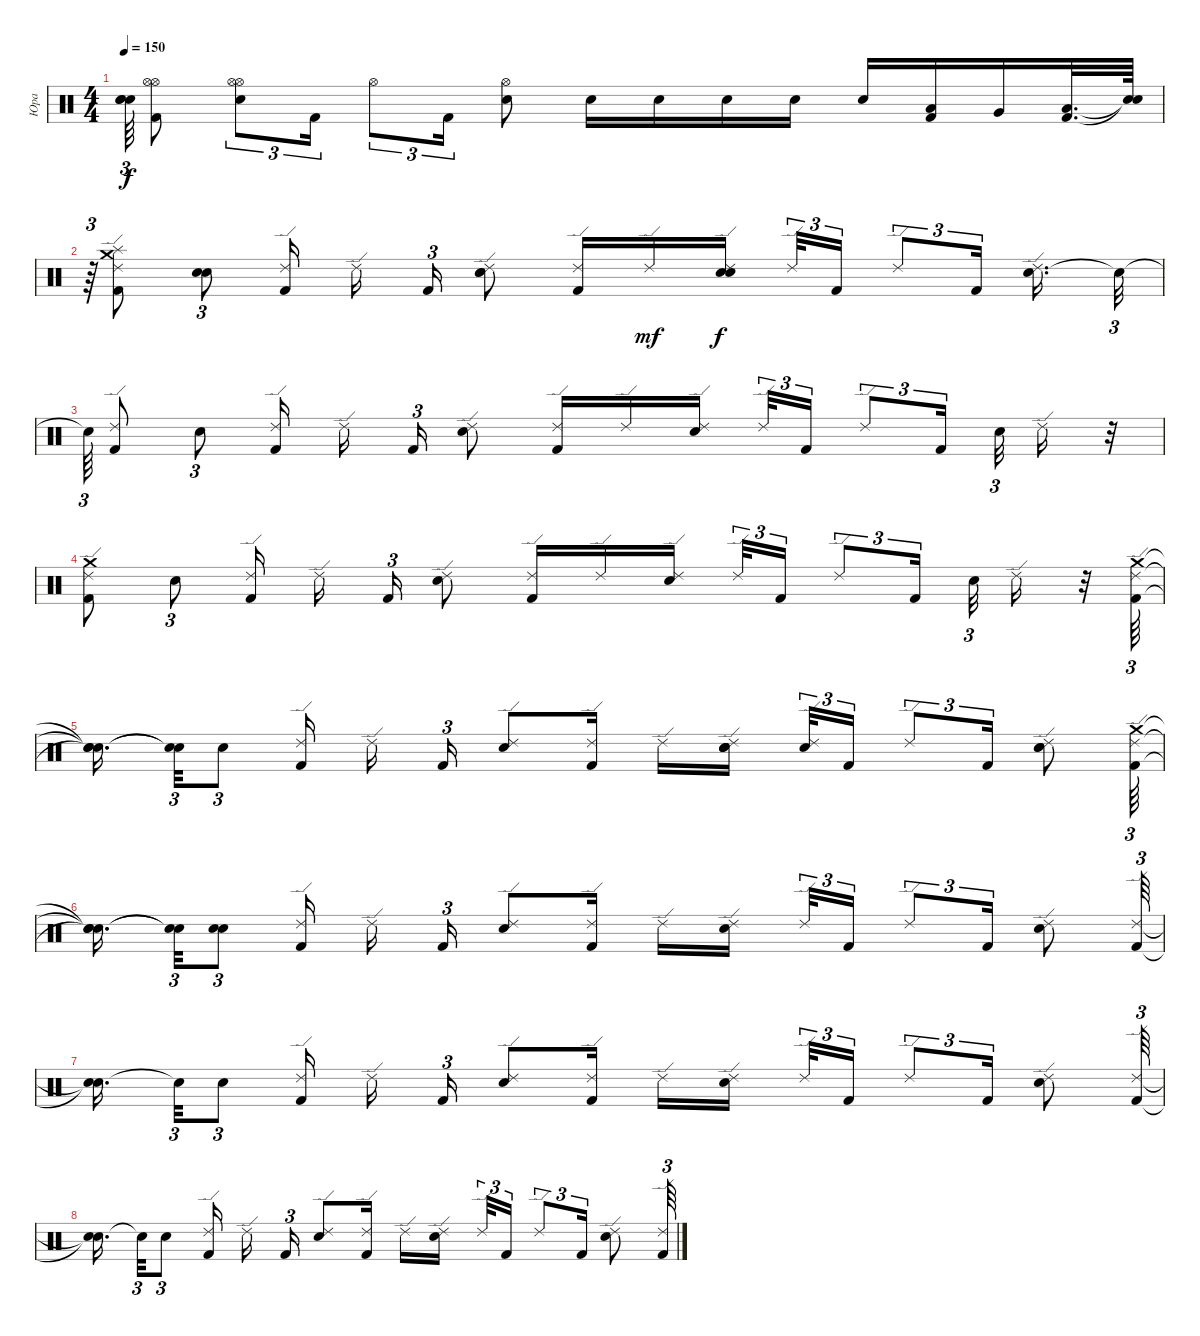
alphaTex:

\track ("Юра" "Юра") {instrument percussion}
\staff {score}
\articulation defaults
\ts (4 4)
\tempo 150
\clef neutral
\ks c
("Snare (hit)"{t} "Snare (hit)"{t} "Snare (hit)"{t}).64{tu (3 2) dy f} ("Kick (hit) 2" "Hi-Hat (open)" "Hi-Hat (open)").8 ("Electric Snare (hit)" "Hi-Hat (open)" "Hi-Hat (open)").8{tu (3 2)} "Kick (hit) 2".16{tu (3 2)} "Hi-Hat (open)".8{tu (3 2)} "Kick (hit) 2".16{tu (3 2)} ("Electric Snare (hit)" "Hi-Hat (open)").8 "Electric Snare (hit)".16 "Electric Snare (hit)".16 "Electric Snare (hit)".16 "Electric Snare (hit)".16 "Electric Snare (hit)".16 ("Kick (hit) 2" "Low Tom (hit)").16 "Very Low Tom (hit)".16 ("Low Floor Tom (hit)" "Kick (hit) 2").32{d} ("Snare (hit)"{t} "Snare (hit)"{t}).64 |
r.64{tu (3 2)} ("Ride (edge) 2" "Crash medium (hit)" "Kick (hit) 2" "Splash (hit)").8 ("Electric Snare (hit)" "Electric Snare (hit)").8{tu (3 2)} ("Ride (edge) 2" "Kick (hit) 2").16 "Ride (edge) 2".16{beam splitsecondary} "Kick (hit) 2".16{tu (3 2)} ("Ride (edge) 2" "Electric Snare (hit)" "Electric Snare (hit)").8 ("Ride (edge) 2" "Kick (hit) 2").16 "Ride (edge) 2".16{dy mf} ("Ride (edge) 2" "Electric Snare (hit)" "Electric Snare (hit)").16{dy f beam splitsecondary} "Ride (edge) 2".32{tu (3 2)} "Kick (hit) 2".16{tu (3 2)} "Ride (edge) 2".8{tu (3 2)} "Kick (hit) 2".16{tu (3 2) beam splitsecondary} ("Electric Snare (hit)" "Ride (edge) 2").16{d} "Snare (hit)"{t}.32{tu (3 2)} |
"Snare (hit)"{t}.64{tu (3 2)} ("Ride (edge) 2" "Kick (hit) 2").8 "Electric Snare (hit)".8{tu (3 2)} ("Ride (edge) 2" "Kick (hit) 2").16 "Ride (edge) 2".16{beam splitsecondary} "Kick (hit) 2".16{tu (3 2)} ("Ride (edge) 2" "Electric Snare (hit)").8 ("Ride (edge) 2" "Kick (hit) 2").16 "Ride (edge) 2".16 ("Ride (edge) 2" "Electric Snare (hit)").16{beam splitsecondary} "Ride (edge) 2".32{tu (3 2)} "Kick (hit) 2".16{tu (3 2)} "Ride (edge) 2".8{tu (3 2)} "Kick (hit) 2".16{tu (3 2) beam splitsecondary} "Electric Snare (hit)".32{tu (3 2)} "Ride (edge) 2".16 r.32 |
("Ride (edge) 2" "Crash medium (hit)" "Kick (hit) 2").8 "Electric Snare (hit)".8{tu (3 2)} ("Kick (hit) 2" "Ride (edge) 2").16 "Ride (edge) 2".16{beam splitsecondary} "Kick (hit) 2".16{tu (3 2)} ("Ride (edge) 2" "Electric Snare (hit)").8 ("Ride (edge) 2" "Kick (hit) 2").16 "Ride (edge) 2".16 ("Ride (edge) 2" "Electric Snare (hit)").16{beam splitsecondary} "Ride (edge) 2".32{tu (3 2)} "Kick (hit) 2".16{tu (3 2)} "Ride (edge) 2".8{tu (3 2)} "Kick (hit) 2".16{tu (3 2) beam splitsecondary} "Electric Snare (hit)".32{tu (3 2)} "Ride (edge) 2".16 r.32 ("Ride (edge) 2" "Crash medium (hit)" "Kick (hit) 2").64{tu (3 2)} |
("Snare (hit)"{t} "Snare (hit)"{t} "Snare (hit)"{t}).16{d beam splitsecondary} ("Snare (hit)"{t} "Snare (hit)"{t}).32{tu (3 2)} "Electric Snare (hit)".8{tu (3 2)} ("Kick (hit) 2" "Ride (edge) 2").16 "Ride (edge) 2".16{beam splitsecondary} "Kick (hit) 2".16{tu (3 2)} ("Ride (edge) 2" "Electric Snare (hit)").8 ("Ride (edge) 2" "Kick (hit) 2").16 "Ride (edge) 2".16 ("Ride (edge) 2" "Electric Snare (hit)" "Electric Snare (hit)" "Electric Snare (hit)").16{beam splitsecondary} ("Ride (edge) 2" "Electric Snare (hit)").32{tu (3 2)} "Kick (hit) 2".16{tu (3 2)} "Ride (edge) 2".8{tu (3 2)} "Kick (hit) 2".16{tu (3 2)} ("Electric Snare (hit)" "Electric Snare (hit)" "Ride (edge) 2").8 ("Ride (edge) 2" "Kick (hit) 2" "Crash medium (hit)").64{tu (3 2)} |
("Snare (hit)"{t} "Snare (hit)"{t} "Snare (hit)"{t}).16{d beam splitsecondary} ("Snare (hit)"{t} "Snare (hit)"{t}).32{tu (3 2)} ("Electric Snare (hit)" "Electric Snare (hit)").8{tu (3 2)} ("Ride (edge) 2" "Kick (hit) 2").16 "Ride (edge) 2".16{beam splitsecondary} "Kick (hit) 2".16{tu (3 2)} ("Ride (edge) 2" "Electric Snare (hit)").8 ("Ride (edge) 2" "Kick (hit) 2").16 "Ride (edge) 2".16 ("Ride (edge) 2" "Electric Snare (hit)").16{beam splitsecondary} "Ride (edge) 2".32{tu (3 2)} "Kick (hit) 2".16{tu (3 2)} "Ride (edge) 2".8{tu (3 2)} "Kick (hit) 2".16{tu (3 2)} ("Ride (edge) 2" "Electric Snare (hit)").8 ("Ride (edge) 2" "Kick (hit) 2").64{tu (3 2)} |
("Snare (hit)"{t} "Snare (hit)"{t}).16{d beam splitsecondary} "Snare (hit)"{t}.32{tu (3 2)} "Electric Snare (hit)".8{tu (3 2)} ("Ride (edge) 2" "Kick (hit) 2").16 "Ride (edge) 2".16{beam splitsecondary} "Kick (hit) 2".16{tu (3 2)} ("Electric Snare (hit)" "Ride (edge) 2").8 ("Ride (edge) 2" "Kick (hit) 2").16 "Ride (edge) 2".16 ("Ride (edge) 2" "Electric Snare (hit)").16{beam splitsecondary} "Ride (edge) 2".32{tu (3 2)} "Kick (hit) 2".16{tu (3 2)} "Ride (edge) 2".8{tu (3 2)} "Kick (hit) 2".16{tu (3 2)} ("Ride (edge) 2" "Electric Snare (hit)").8 ("Kick (hit) 2" "Ride (edge) 2").64{tu (3 2)} |
("Snare (hit)"{t} "Snare (hit)"{t}).16{d beam splitsecondary} "Snare (hit)"{t}.32{tu (3 2)} "Electric Snare (hit)".8{tu (3 2)} ("Kick (hit) 2" "Ride (edge) 2").16 "Ride (edge) 2".16{beam splitsecondary} "Kick (hit) 2".16{tu (3 2)} ("Electric Snare (hit)" "Ride (edge) 2").8 ("Kick (hit) 2" "Ride (edge) 2").16 "Ride (edge) 2".16 ("Electric Snare (hit)" "Ride (edge) 2").16{beam splitsecondary} "Ride (edge) 2".32{tu (3 2)} "Kick (hit) 2".16{tu (3 2)} "Ride (edge) 2".8{tu (3 2)} "Kick (hit) 2".16{tu (3 2)} ("Electric Snare (hit)" "Ride (edge) 2").8 ("Kick (hit) 2" "Ride (edge) 2").64{tu (3 2)}
